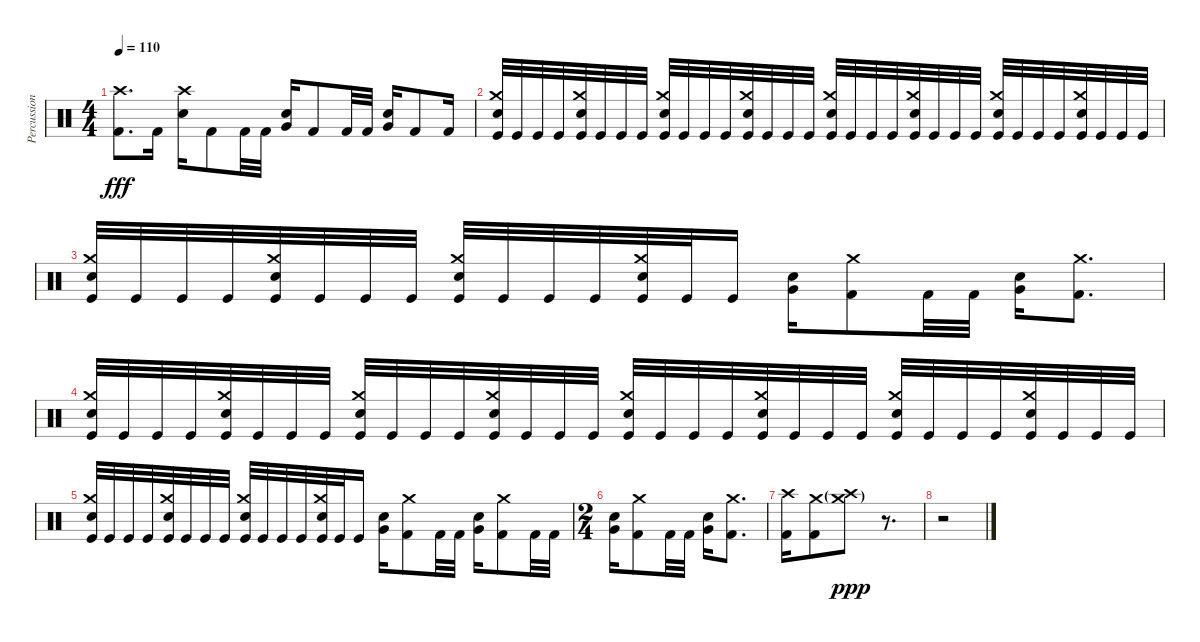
\track ("Percussion" "Percussion") {instrument percussion}
\staff {score}
\articulation defaults
\ts (4 4)
\tempo 110
\clef neutral
\ks c
("Crash high (hit)" "Kick (hit) 2").8{d dy fff} "Kick (hit) 2".16 ("Crash high (hit)" "Electric Snare (hit)").16 "Kick (hit) 2".8 "Kick (hit) 2".32 "Kick (hit) 2".32 ("Electric Snare (hit)" "Very Low Tom (hit)").16 "Kick (hit) 2".8 "Kick (hit) 2".32 "Kick (hit) 2".32 ("Electric Snare (hit)" "Very Low Tom (hit)").16 "Kick (hit) 2".8 "Kick (hit) 2".16 |
("Crash medium (hit)" "Electric Snare (hit)" "Kick (hit)").32 "Kick (hit)".32 "Kick (hit)".32 "Kick (hit)".32 ("Crash medium (hit)" "Electric Snare (hit)" "Kick (hit)").32 "Kick (hit)".32 "Kick (hit)".32 "Kick (hit)".32 ("Crash medium (hit)" "Electric Snare (hit)" "Kick (hit)").32 "Kick (hit)".32 "Kick (hit)".32 "Kick (hit)".32 ("Crash medium (hit)" "Electric Snare (hit)" "Kick (hit)").32 "Kick (hit)".32 "Kick (hit)".32 "Kick (hit)".32 ("Crash medium (hit)" "Electric Snare (hit)" "Kick (hit)").32 "Kick (hit)".32 "Kick (hit)".32 "Kick (hit)".32 ("Crash medium (hit)" "Electric Snare (hit)" "Kick (hit)").32 "Kick (hit)".32 "Kick (hit)".32 "Kick (hit)".32 ("Crash medium (hit)" "Electric Snare (hit)" "Kick (hit)").32 "Kick (hit)".32 "Kick (hit)".32 "Kick (hit)".32 ("Crash medium (hit)" "Electric Snare (hit)" "Kick (hit)").32 "Kick (hit)".32 "Kick (hit)".32 "Kick (hit)".32 |
("Crash medium (hit)" "Electric Snare (hit)" "Kick (hit)").32 "Kick (hit)".32 "Kick (hit)".32 "Kick (hit)".32 ("Crash medium (hit)" "Electric Snare (hit)" "Kick (hit)").32 "Kick (hit)".32 "Kick (hit)".32 "Kick (hit)".32 ("Crash medium (hit)" "Electric Snare (hit)" "Kick (hit)").32 "Kick (hit)".32 "Kick (hit)".32 "Kick (hit)".32 ("Crash medium (hit)" "Electric Snare (hit)" "Kick (hit)").32 "Kick (hit)".32 "Kick (hit)".16 ("Electric Snare (hit)" "Very Low Tom (hit)").16 ("Crash medium (hit)" "Kick (hit) 2").8 "Kick (hit) 2".32 "Kick (hit) 2".32 ("Electric Snare (hit)" "Very Low Tom (hit)").16 ("Crash medium (hit)" "Kick (hit) 2").8{d} |
("Crash medium (hit)" "Electric Snare (hit)" "Kick (hit)").32 "Kick (hit)".32 "Kick (hit)".32 "Kick (hit)".32 ("Crash medium (hit)" "Electric Snare (hit)" "Kick (hit)").32 "Kick (hit)".32 "Kick (hit)".32 "Kick (hit)".32 ("Crash medium (hit)" "Electric Snare (hit)" "Kick (hit)").32 "Kick (hit)".32 "Kick (hit)".32 "Kick (hit)".32 ("Crash medium (hit)" "Electric Snare (hit)" "Kick (hit)").32 "Kick (hit)".32 "Kick (hit)".32 "Kick (hit)".32 ("Crash medium (hit)" "Electric Snare (hit)" "Kick (hit)").32 "Kick (hit)".32 "Kick (hit)".32 "Kick (hit)".32 ("Crash medium (hit)" "Electric Snare (hit)" "Kick (hit)").32 "Kick (hit)".32 "Kick (hit)".32 "Kick (hit)".32 ("Crash medium (hit)" "Electric Snare (hit)" "Kick (hit)").32 "Kick (hit)".32 "Kick (hit)".32 "Kick (hit)".32 ("Crash medium (hit)" "Electric Snare (hit)" "Kick (hit)").32 "Kick (hit)".32 "Kick (hit)".32 "Kick (hit)".32 |
("Crash medium (hit)" "Electric Snare (hit)" "Kick (hit)").32 "Kick (hit)".32 "Kick (hit)".32 "Kick (hit)".32 ("Crash medium (hit)" "Electric Snare (hit)" "Kick (hit)").32 "Kick (hit)".32 "Kick (hit)".32 "Kick (hit)".32 ("Crash medium (hit)" "Electric Snare (hit)" "Kick (hit)").32 "Kick (hit)".32 "Kick (hit)".32 "Kick (hit)".32 ("Crash medium (hit)" "Electric Snare (hit)" "Kick (hit)").32 "Kick (hit)".32 "Kick (hit)".16 ("Electric Snare (hit)" "Very Low Tom (hit)").16 ("Crash medium (hit)" "Kick (hit) 2").8 "Kick (hit) 2".32 "Kick (hit) 2".32 ("Electric Snare (hit)" "Very Low Tom (hit)").16 ("Crash medium (hit)" "Kick (hit) 2").8 "Kick (hit) 2".32 "Kick (hit) 2".32 |
\ts (2 4)
("Electric Snare (hit)" "Very Low Tom (hit)").16 ("Crash medium (hit)" "Kick (hit) 2").8 "Kick (hit) 2".32 "Kick (hit) 2".32 ("Electric Snare (hit)" "Very Low Tom (hit)").16 ("Crash medium (hit)" "Kick (hit) 2").8{d} |
("Crash high (hit)" "Kick (hit) 2").16 ("Crash medium (hit)" "Kick (hit) 2").8 ("Crash medium (hit)"{g} "Crash high (hit)"{g}).8{dy ppp} r.8{d} |
r.2
